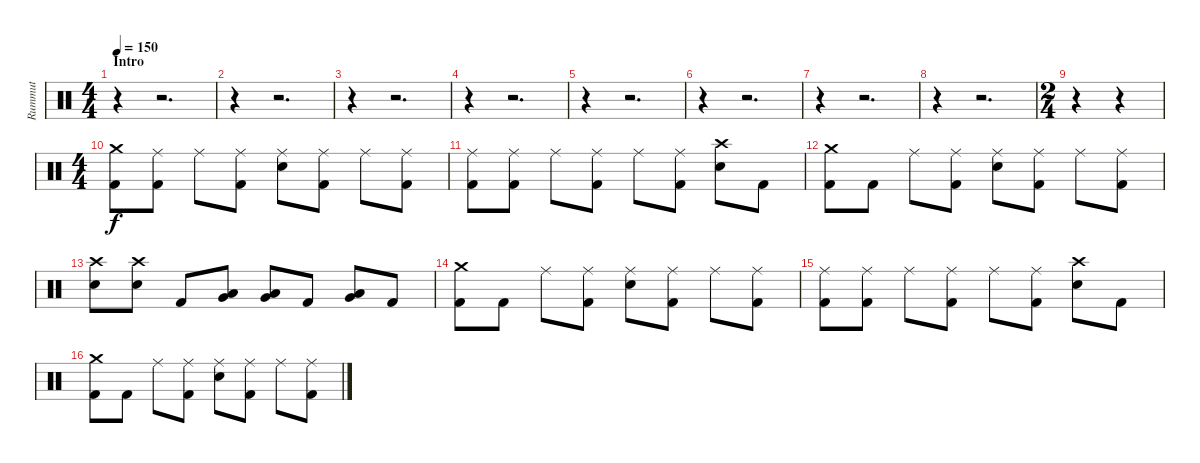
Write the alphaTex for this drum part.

\track ("Rummut" "Rummut") {instrument percussion}
\staff {score}
\articulation defaults
\ts (4 4)
\section ("" "Intro")
\tempo 150
\clef neutral
\ks c
r.4{dy f} r.2{d} |
r.4 r.2{d} |
r.4 r.2{d} |
r.4 r.2{d} |
r.4 r.2{d} |
r.4 r.2{d} |
r.4 r.2{d} |
r.4 r.2{d} |
\ts (2 4)
r.4 r.4 |
\ts (4 4)
("Crash medium (hit)" "Kick (hit) 2").8 ("Ride (middle)" "Kick (hit) 2").8 "Ride (middle)".8 ("Ride (middle)" "Kick (hit) 2").8 ("Ride (middle)" "Snare (hit) 2").8 ("Ride (middle)" "Kick (hit) 2").8 "Ride (middle)".8 ("Ride (middle)" "Kick (hit) 2").8 |
("Ride (middle)" "Kick (hit) 2").8 ("Ride (middle)" "Kick (hit) 2").8 "Ride (middle)".8 ("Ride (middle)" "Kick (hit) 2").8 "Ride (middle)".8 ("Ride (middle)" "Kick (hit) 2").8 ("Crash high (hit)" "Snare (hit) 2").8 "Kick (hit) 2".8 |
("Crash medium (hit)" "Kick (hit) 2").8 "Kick (hit) 2".8 "Ride (middle)".8 ("Ride (middle)" "Kick (hit) 2").8 ("Ride (middle)" "Snare (hit) 2").8 ("Ride (middle)" "Kick (hit) 2").8 "Ride (middle)".8 ("Ride (middle)" "Kick (hit) 2").8 |
("Crash high (hit)" "Snare (hit) 2").8 ("Crash high (hit)" "Snare (hit) 2").8 "Kick (hit) 2".8 ("Low Tom (hit)" "Very Low Tom (hit)").8 ("Low Tom (hit)" "Very Low Tom (hit)").8 "Kick (hit) 2".8 ("Very Low Tom (hit)" "Low Floor Tom (hit)").8 "Kick (hit) 2".8 |
("Crash medium (hit)" "Kick (hit) 2").8 "Kick (hit) 2".8 "Ride (middle)".8 ("Ride (middle)" "Kick (hit) 2").8 ("Ride (middle)" "Snare (hit) 2").8 ("Ride (middle)" "Kick (hit) 2").8 "Ride (middle)".8 ("Ride (middle)" "Kick (hit) 2").8 |
("Ride (middle)" "Kick (hit) 2").8 ("Ride (middle)" "Kick (hit) 2").8 "Ride (middle)".8 ("Ride (middle)" "Kick (hit) 2").8 "Ride (middle)".8 ("Ride (middle)" "Kick (hit) 2").8 ("Crash high (hit)" "Snare (hit) 2").8 "Kick (hit) 2".8 |
("Crash medium (hit)" "Kick (hit) 2").8 "Kick (hit) 2".8 "Ride (middle)".8 ("Ride (middle)" "Kick (hit) 2").8 ("Ride (middle)" "Snare (hit) 2").8 ("Ride (middle)" "Kick (hit) 2").8 "Ride (middle)".8 ("Ride (middle)" "Kick (hit) 2").8
